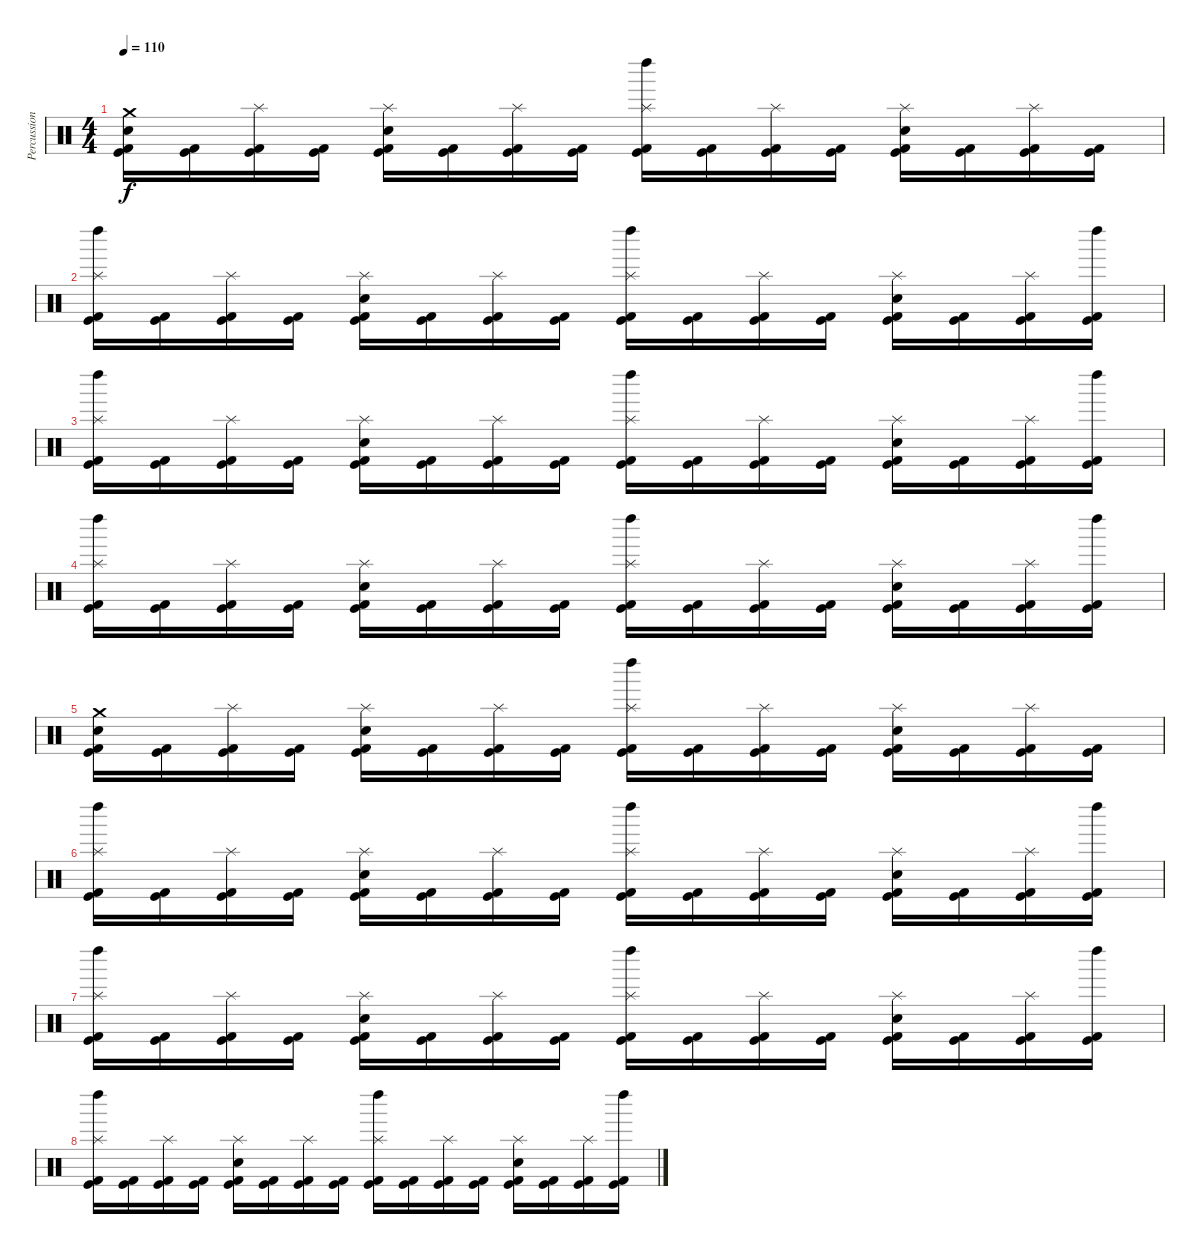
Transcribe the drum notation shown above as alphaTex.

\track ("Percussions" "Percussion") {instrument percussion}
\staff {score}
\articulation defaults
\ts (4 4)
\tempo 110
\clef neutral
\ks c
("Kick (hit)" "Kick (hit) 2" "Electric Snare (hit)" "Crash medium (hit)").16{dy f} ("Kick (hit)" "Kick (hit) 2").16 ("Kick (hit)" "Kick (hit) 2" "Splash (hit)").16 ("Kick (hit)" "Kick (hit) 2").16 ("Kick (hit)" "Kick (hit) 2" "Electric Snare (hit)" "Splash (hit)").16 ("Kick (hit)" "Kick (hit) 2").16 ("Kick (hit)" "Kick (hit) 2" "Splash (hit)").16 ("Kick (hit)" "Kick (hit) 2").16 ("Kick (hit)" "Kick (hit) 2" "Left Maraca (hit)" "Splash (hit)").16 ("Kick (hit)" "Kick (hit) 2").16 ("Kick (hit)" "Kick (hit) 2" "Splash (hit)").16 ("Kick (hit)" "Kick (hit) 2").16 ("Kick (hit)" "Kick (hit) 2" "Electric Snare (hit)" "Splash (hit)").16 ("Kick (hit)" "Kick (hit) 2").16 ("Kick (hit)" "Kick (hit) 2" "Splash (hit)").16 ("Kick (hit)" "Kick (hit) 2").16 |
("Kick (hit)" "Kick (hit) 2" "Left Maraca (hit)" "Splash (hit)").16 ("Kick (hit)" "Kick (hit) 2").16 ("Kick (hit)" "Kick (hit) 2" "Splash (hit)").16 ("Kick (hit)" "Kick (hit) 2").16 ("Kick (hit)" "Kick (hit) 2" "Electric Snare (hit)" "Splash (hit)").16 ("Kick (hit)" "Kick (hit) 2").16 ("Kick (hit)" "Kick (hit) 2" "Splash (hit)").16 ("Kick (hit)" "Kick (hit) 2").16 ("Kick (hit)" "Kick (hit) 2" "Left Maraca (hit)" "Splash (hit)").16 ("Kick (hit)" "Kick (hit) 2").16 ("Kick (hit)" "Kick (hit) 2" "Splash (hit)").16 ("Kick (hit)" "Kick (hit) 2").16 ("Kick (hit)" "Kick (hit) 2" "Electric Snare (hit)" "Splash (hit)").16 ("Kick (hit)" "Kick (hit) 2").16 ("Kick (hit)" "Kick (hit) 2" "Splash (hit)").16 ("Kick (hit)" "Kick (hit) 2" "Left Maraca (hit)").16 |
("Kick (hit)" "Kick (hit) 2" "Left Maraca (hit)" "Splash (hit)").16 ("Kick (hit)" "Kick (hit) 2").16 ("Kick (hit)" "Kick (hit) 2" "Splash (hit)").16 ("Kick (hit)" "Kick (hit) 2").16 ("Kick (hit)" "Kick (hit) 2" "Electric Snare (hit)" "Splash (hit)").16 ("Kick (hit)" "Kick (hit) 2").16 ("Kick (hit)" "Kick (hit) 2" "Splash (hit)").16 ("Kick (hit)" "Kick (hit) 2").16 ("Kick (hit)" "Kick (hit) 2" "Left Maraca (hit)" "Splash (hit)").16 ("Kick (hit)" "Kick (hit) 2").16 ("Kick (hit)" "Kick (hit) 2" "Splash (hit)").16 ("Kick (hit)" "Kick (hit) 2").16 ("Kick (hit)" "Kick (hit) 2" "Electric Snare (hit)" "Splash (hit)").16 ("Kick (hit)" "Kick (hit) 2").16 ("Kick (hit)" "Kick (hit) 2" "Splash (hit)").16 ("Kick (hit)" "Kick (hit) 2" "Left Maraca (hit)").16 |
("Kick (hit)" "Kick (hit) 2" "Left Maraca (hit)" "Splash (hit)").16 ("Kick (hit)" "Kick (hit) 2").16 ("Kick (hit)" "Kick (hit) 2" "Splash (hit)").16 ("Kick (hit)" "Kick (hit) 2").16 ("Kick (hit)" "Kick (hit) 2" "Electric Snare (hit)" "Splash (hit)").16 ("Kick (hit)" "Kick (hit) 2").16 ("Kick (hit)" "Kick (hit) 2" "Splash (hit)").16 ("Kick (hit)" "Kick (hit) 2").16 ("Kick (hit)" "Kick (hit) 2" "Left Maraca (hit)" "Splash (hit)").16 ("Kick (hit)" "Kick (hit) 2").16 ("Kick (hit)" "Kick (hit) 2" "Splash (hit)").16 ("Kick (hit)" "Kick (hit) 2").16 ("Kick (hit)" "Kick (hit) 2" "Electric Snare (hit)" "Splash (hit)").16 ("Kick (hit)" "Kick (hit) 2").16 ("Kick (hit)" "Kick (hit) 2" "Splash (hit)").16 ("Kick (hit)" "Kick (hit) 2" "Left Maraca (hit)").16 |
("Kick (hit)" "Kick (hit) 2" "Electric Snare (hit)" "Crash medium (hit)").16 ("Kick (hit)" "Kick (hit) 2").16 ("Kick (hit)" "Kick (hit) 2" "Splash (hit)").16 ("Kick (hit)" "Kick (hit) 2").16 ("Kick (hit)" "Kick (hit) 2" "Electric Snare (hit)" "Splash (hit)").16 ("Kick (hit)" "Kick (hit) 2").16 ("Kick (hit)" "Kick (hit) 2" "Splash (hit)").16 ("Kick (hit)" "Kick (hit) 2").16 ("Kick (hit)" "Kick (hit) 2" "Left Maraca (hit)" "Splash (hit)").16 ("Kick (hit)" "Kick (hit) 2").16 ("Kick (hit)" "Kick (hit) 2" "Splash (hit)").16 ("Kick (hit)" "Kick (hit) 2").16 ("Kick (hit)" "Kick (hit) 2" "Electric Snare (hit)" "Splash (hit)").16 ("Kick (hit)" "Kick (hit) 2").16 ("Kick (hit)" "Kick (hit) 2" "Splash (hit)").16 ("Kick (hit)" "Kick (hit) 2").16 |
("Kick (hit)" "Kick (hit) 2" "Left Maraca (hit)" "Splash (hit)").16 ("Kick (hit)" "Kick (hit) 2").16 ("Kick (hit)" "Kick (hit) 2" "Splash (hit)").16 ("Kick (hit)" "Kick (hit) 2").16 ("Kick (hit)" "Kick (hit) 2" "Electric Snare (hit)" "Splash (hit)").16 ("Kick (hit)" "Kick (hit) 2").16 ("Kick (hit)" "Kick (hit) 2" "Splash (hit)").16 ("Kick (hit)" "Kick (hit) 2").16 ("Kick (hit)" "Kick (hit) 2" "Left Maraca (hit)" "Splash (hit)").16 ("Kick (hit)" "Kick (hit) 2").16 ("Kick (hit)" "Kick (hit) 2" "Splash (hit)").16 ("Kick (hit)" "Kick (hit) 2").16 ("Kick (hit)" "Kick (hit) 2" "Electric Snare (hit)" "Splash (hit)").16 ("Kick (hit)" "Kick (hit) 2").16 ("Kick (hit)" "Kick (hit) 2" "Splash (hit)").16 ("Kick (hit)" "Kick (hit) 2" "Left Maraca (hit)").16 |
("Kick (hit)" "Kick (hit) 2" "Left Maraca (hit)" "Splash (hit)").16 ("Kick (hit)" "Kick (hit) 2").16 ("Kick (hit)" "Kick (hit) 2" "Splash (hit)").16 ("Kick (hit)" "Kick (hit) 2").16 ("Kick (hit)" "Kick (hit) 2" "Electric Snare (hit)" "Splash (hit)").16 ("Kick (hit)" "Kick (hit) 2").16 ("Kick (hit)" "Kick (hit) 2" "Splash (hit)").16 ("Kick (hit)" "Kick (hit) 2").16 ("Kick (hit)" "Kick (hit) 2" "Left Maraca (hit)" "Splash (hit)").16 ("Kick (hit)" "Kick (hit) 2").16 ("Kick (hit)" "Kick (hit) 2" "Splash (hit)").16 ("Kick (hit)" "Kick (hit) 2").16 ("Kick (hit)" "Kick (hit) 2" "Electric Snare (hit)" "Splash (hit)").16 ("Kick (hit)" "Kick (hit) 2").16 ("Kick (hit)" "Kick (hit) 2" "Splash (hit)").16 ("Kick (hit)" "Kick (hit) 2" "Left Maraca (hit)").16 |
("Kick (hit)" "Kick (hit) 2" "Left Maraca (hit)" "Splash (hit)").16 ("Kick (hit)" "Kick (hit) 2").16 ("Kick (hit)" "Kick (hit) 2" "Splash (hit)").16 ("Kick (hit)" "Kick (hit) 2").16 ("Kick (hit)" "Kick (hit) 2" "Electric Snare (hit)" "Splash (hit)").16 ("Kick (hit)" "Kick (hit) 2").16 ("Kick (hit)" "Kick (hit) 2" "Splash (hit)").16 ("Kick (hit)" "Kick (hit) 2").16 ("Kick (hit)" "Kick (hit) 2" "Left Maraca (hit)" "Splash (hit)").16 ("Kick (hit)" "Kick (hit) 2").16 ("Kick (hit)" "Kick (hit) 2" "Splash (hit)").16 ("Kick (hit)" "Kick (hit) 2").16 ("Kick (hit)" "Kick (hit) 2" "Electric Snare (hit)" "Splash (hit)").16 ("Kick (hit)" "Kick (hit) 2").16 ("Kick (hit)" "Kick (hit) 2" "Splash (hit)").16 ("Kick (hit)" "Kick (hit) 2" "Left Maraca (hit)").16
